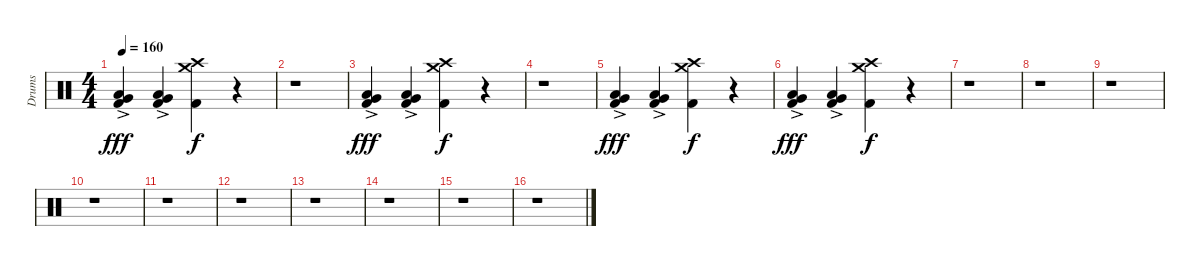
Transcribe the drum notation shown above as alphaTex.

\track ("Drums" "Drums") {instrument percussion}
\staff {score}
\articulation defaults
\ts (4 4)
\tempo 160
\clef neutral
\ks c
("Very Low Tom (hit)"{ac} "Low Floor Tom (hit)"{ac} "Kick (hit) 2"{ac}).4{dy fff} ("Very Low Tom (hit)"{ac} "Low Floor Tom (hit)"{ac} "Kick (hit) 2"{ac}).4 ("Crash high (hit)" "Crash medium (hit)" "Kick (hit) 2").4{dy f} r.4 |
r.1 |
("Very Low Tom (hit)"{ac} "Low Floor Tom (hit)"{ac} "Kick (hit) 2"{ac}).4{dy fff} ("Very Low Tom (hit)"{ac} "Low Floor Tom (hit)"{ac} "Kick (hit) 2"{ac}).4 ("Crash high (hit)" "Crash medium (hit)" "Kick (hit) 2").4{dy f} r.4 |
r.1 |
("Very Low Tom (hit)"{ac} "Low Floor Tom (hit)"{ac} "Kick (hit) 2"{ac}).4{dy fff} ("Very Low Tom (hit)"{ac} "Low Floor Tom (hit)"{ac} "Kick (hit) 2"{ac}).4 ("Crash high (hit)" "Crash medium (hit)" "Kick (hit) 2").4{dy f} r.4 |
("Very Low Tom (hit)"{ac} "Low Floor Tom (hit)"{ac} "Kick (hit) 2"{ac}).4{dy fff} ("Very Low Tom (hit)"{ac} "Low Floor Tom (hit)"{ac} "Kick (hit) 2"{ac}).4 ("Crash high (hit)" "Crash medium (hit)" "Kick (hit) 2").4{dy f} r.4 |
r.1 |
r.1 |
r.1 |
r.1 |
r.1 |
r.1 |
r.1 |
r.1 |
r.1 |
r.1
